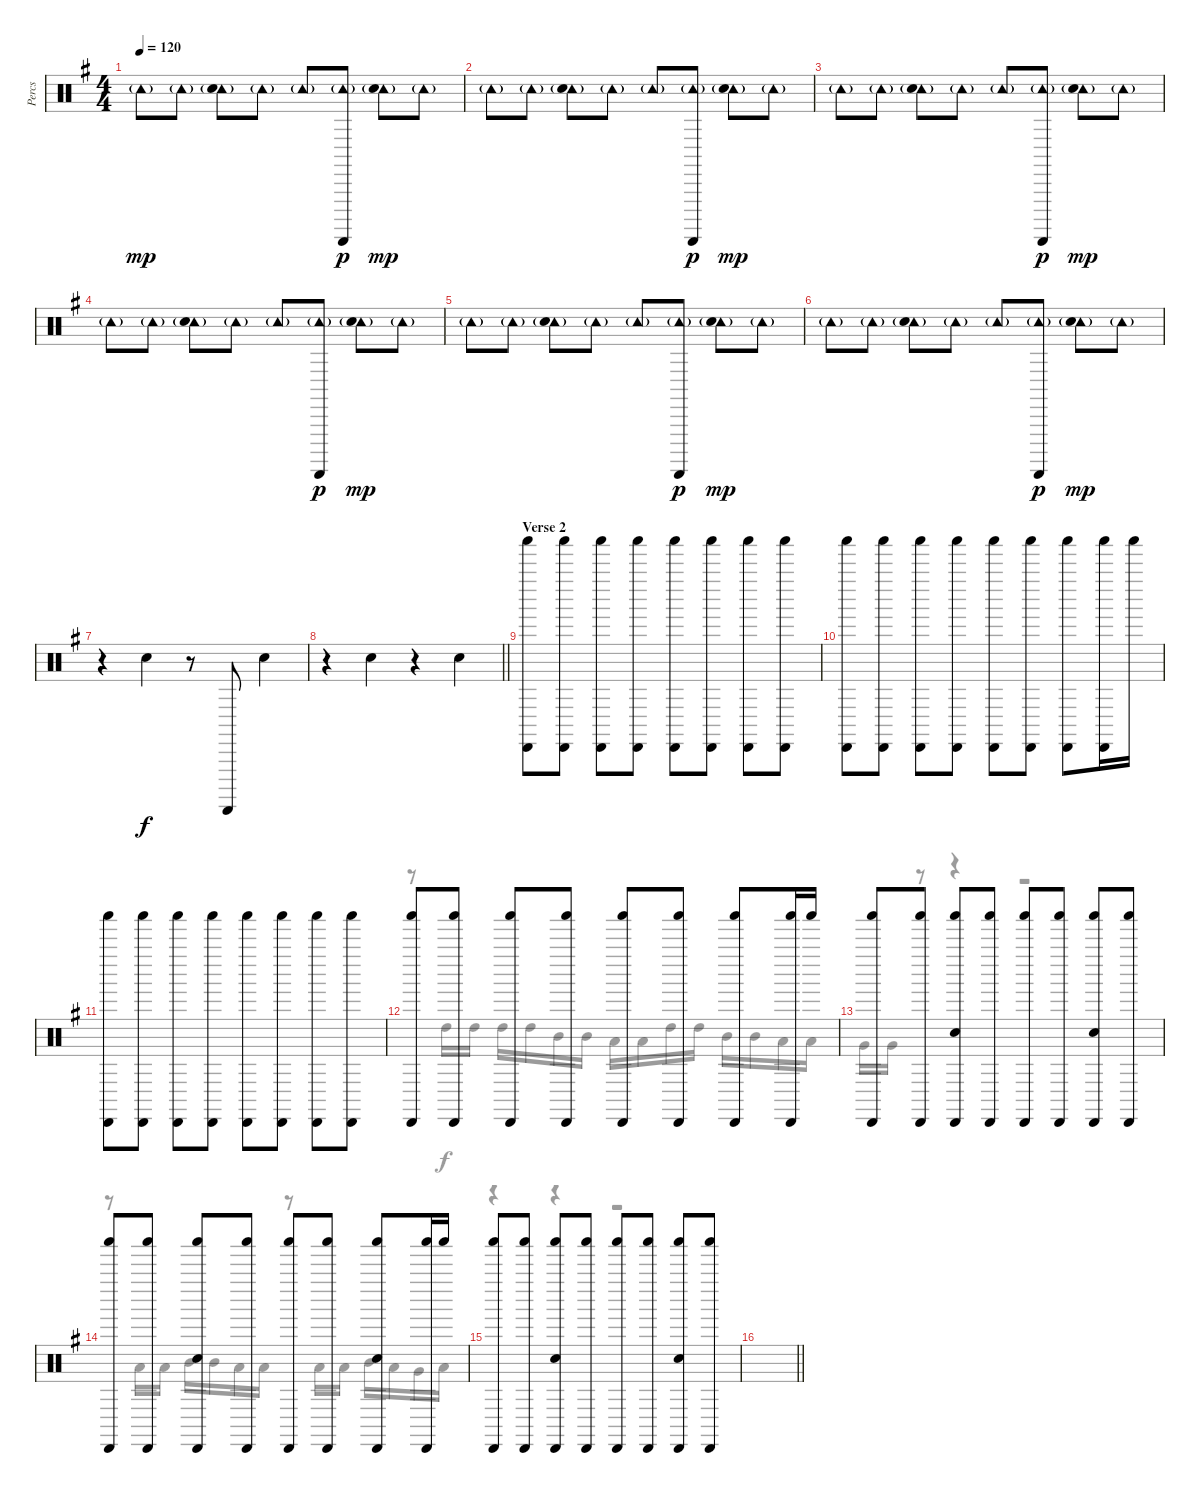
\track ("Percs" "Percs") {instrument percussion}
\staff {score}
\articulation defaults
\voice
\ts (4 4)
\tempo 120
\clef neutral
\ks g "Tambourine (hit)"{g}.8{dy mp} "Tambourine (hit)"{g}.8
("Tambourine (hit)"{g} "Hand Clap (hit)").8 "Tambourine (hit)"{g}.8 "Tambourine (hit)"{g}.8 ("Tambourine (hit)"{g} "Guiro (scrap-return)").8{dy p} ("Tambourine (hit)"{g} "Hand Clap (hit)").8{dy mp} "Tambourine (hit)"{g}.8 |
"Tambourine (hit)"{g}.8 "Tambourine (hit)"{g}.8 ("Tambourine (hit)"{g} "Hand Clap (hit)").8 "Tambourine (hit)"{g}.8 "Tambourine (hit)"{g}.8 ("Tambourine (hit)"{g} "Guiro (scrap-return)").8{dy p} ("Tambourine (hit)"{g} "Hand Clap (hit)").8{dy mp} "Tambourine (hit)"{g}.8 |
"Tambourine (hit)"{g}.8 "Tambourine (hit)"{g}.8 ("Tambourine (hit)"{g} "Hand Clap (hit)").8 "Tambourine (hit)"{g}.8 "Tambourine (hit)"{g}.8 ("Tambourine (hit)"{g} "Guiro (scrap-return)").8{dy p} ("Tambourine (hit)"{g} "Hand Clap (hit)").8{dy mp} "Tambourine (hit)"{g}.8 |
"Tambourine (hit)"{g}.8 "Tambourine (hit)"{g}.8 ("Tambourine (hit)"{g} "Hand Clap (hit)").8 "Tambourine (hit)"{g}.8 "Tambourine (hit)"{g}.8 ("Tambourine (hit)"{g} "Guiro (scrap-return)").8{dy p} ("Tambourine (hit)"{g} "Hand Clap (hit)").8{dy mp} "Tambourine (hit)"{g}.8 |
"Tambourine (hit)"{g}.8 "Tambourine (hit)"{g}.8 ("Tambourine (hit)"{g} "Hand Clap (hit)").8 "Tambourine (hit)"{g}.8 "Tambourine (hit)"{g}.8 ("Tambourine (hit)"{g} "Guiro (scrap-return)").8{dy p} ("Tambourine (hit)"{g} "Hand Clap (hit)").8{dy mp} "Tambourine (hit)"{g}.8 |
"Tambourine (hit)"{g}.8 "Tambourine (hit)"{g}.8 ("Tambourine (hit)"{g} "Hand Clap (hit)").8 "Tambourine (hit)"{g}.8 "Tambourine (hit)"{g}.8 ("Tambourine (hit)"{g} "Guiro (scrap-return)").8{dy p} ("Tambourine (hit)"{g} "Hand Clap (hit)").8{dy mp} "Tambourine (hit)"{g}.8 |
r.4 "Hand Clap (hit)".4{dy f} r.8 "Guiro (scrap-return)".8 "Hand Clap (hit)".4 |
\barLineRight lightlight
r.4 "Hand Clap (hit)".4 r.4 "Hand Clap (hit)".4 |
\section ("" "Verse 2")
("Cabasa (hit)" "Shaker (hit)").8 ("Cabasa (hit)" "Shaker (hit)").8 ("Cabasa (hit)" "Shaker (hit)").8 ("Cabasa (hit)" "Shaker (hit)").8 ("Cabasa (hit)" "Shaker (hit)").8 ("Cabasa (hit)" "Shaker (hit)").8 ("Cabasa (hit)" "Shaker (hit)").8 ("Cabasa (hit)" "Shaker (hit)").8 |
("Cabasa (hit)" "Shaker (hit)").8 ("Cabasa (hit)" "Shaker (hit)").8 ("Cabasa (hit)" "Shaker (hit)").8 ("Cabasa (hit)" "Shaker (hit)").8 ("Cabasa (hit)" "Shaker (hit)").8 ("Cabasa (hit)" "Shaker (hit)").8 ("Cabasa (hit)" "Shaker (hit)").8 ("Cabasa (hit)" "Shaker (hit)").16 "Shaker (hit)".16 |
("Cabasa (hit)" "Shaker (hit)").8 ("Cabasa (hit)" "Shaker (hit)").8 ("Cabasa (hit)" "Shaker (hit)").8 ("Cabasa (hit)" "Shaker (hit)").8 ("Cabasa (hit)" "Shaker (hit)").8 ("Cabasa (hit)" "Shaker (hit)").8 ("Cabasa (hit)" "Shaker (hit)").8 ("Cabasa (hit)" "Shaker (hit)").8 |
("Cabasa (hit)" "Shaker (hit)").8 ("Cabasa (hit)" "Shaker (hit)").8 ("Cabasa (hit)" "Shaker (hit)").8 ("Cabasa (hit)" "Shaker (hit)").8 ("Cabasa (hit)" "Shaker (hit)").8 ("Cabasa (hit)" "Shaker (hit)").8 ("Cabasa (hit)" "Shaker (hit)").8 ("Cabasa (hit)" "Shaker (hit)").16 "Shaker (hit)".16 |
("Cabasa (hit)" "Shaker (hit)").8 ("Cabasa (hit)" "Shaker (hit)").8 ("Cabasa (hit)" "Shaker (hit)" "Hand Clap (hit)").8 ("Cabasa (hit)" "Shaker (hit)").8 ("Cabasa (hit)" "Shaker (hit)").8 ("Cabasa (hit)" "Shaker (hit)").8 ("Cabasa (hit)" "Shaker (hit)" "Hand Clap (hit)").8 ("Cabasa (hit)" "Shaker (hit)").8 |
("Cabasa (hit)" "Shaker (hit)").8 ("Cabasa (hit)" "Shaker (hit)").8 ("Cabasa (hit)" "Shaker (hit)" "Hand Clap (hit)").8 ("Cabasa (hit)" "Shaker (hit)").8 ("Cabasa (hit)" "Shaker (hit)").8 ("Cabasa (hit)" "Shaker (hit)").8 ("Cabasa (hit)" "Shaker (hit)" "Hand Clap (hit)").8 ("Cabasa (hit)" "Shaker (hit)").16 "Shaker (hit)".16 |
("Cabasa (hit)" "Shaker (hit)").8 ("Cabasa (hit)" "Shaker (hit)").8 ("Cabasa (hit)" "Shaker (hit)" "Hand Clap (hit)").8 ("Cabasa (hit)" "Shaker (hit)").8 ("Cabasa (hit)" "Shaker (hit)").8 ("Cabasa (hit)" "Shaker (hit)").8 ("Cabasa (hit)" "Shaker (hit)" "Hand Clap (hit)").8 ("Cabasa (hit)" "Shaker (hit)").8 |
\barLineRight lightlight
\voice
\clef neutral
\ottava regular
\simile none
\ks g
|
|
|
|
|
|
|
\barLineRight lightlight
|
|
|
|
r.8 "High Tom (hit)".16 "High Tom (hit)".16 "High Tom (hit)".16 "High Tom (hit)".16 "Mid Tom (hit)".16 "Mid Tom (hit)".16 "Low Tom (hit)".16 "Low Tom (hit)".16 "High Tom (hit)".16 "High Tom (hit)".16 "Mid Tom (hit)".16 "Mid Tom (hit)".16 "Low Tom (hit)".16 "Low Tom (hit)".16 |
"Very Low Tom (hit)".16 "Very Low Tom (hit)".16 r.8 r.4 r.2 |
r.8 "Low Tom (hit)".16 "Low Tom (hit)".16 "Mid Tom (hit)".16 "Mid Tom (hit)".16 "Low Tom (hit)".16 "Low Tom (hit)".16 r.8 "Low Tom (hit)".16 "Low Tom (hit)".16 "Mid Tom (hit)".16 "Low Tom (hit)".16 "Very Low Tom (hit)".16 "Low Floor Tom (hit)".16 |
r.4 r.4 r.2 |
\barLineRight lightlight
